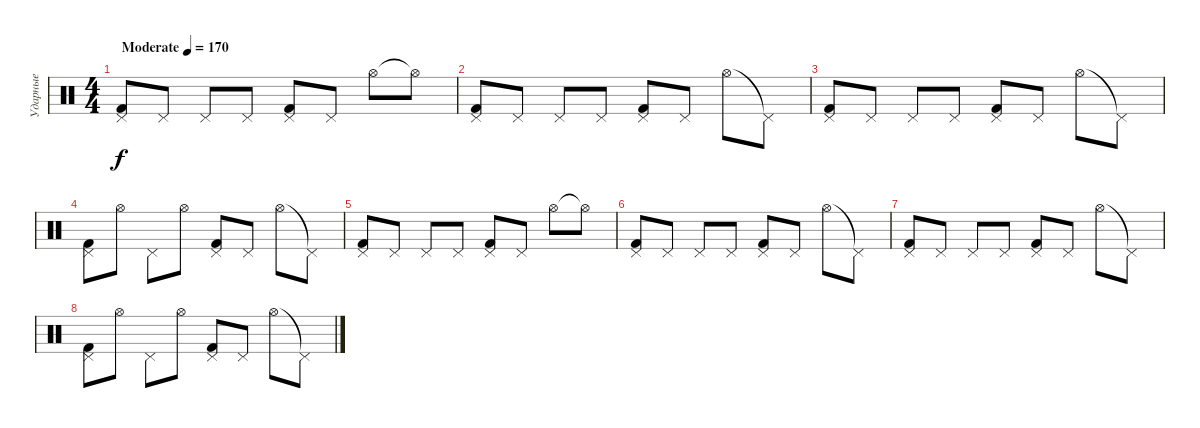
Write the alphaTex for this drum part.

\track ("Ударные" "Ударные") {instrument percussion}
\staff {score}
\articulation defaults
\ts (4 4)
\tempo (170 "Moderate")
\clef neutral
\ks c
("Pedal Hi-Hat (hit)" "Kick (hit) 2").8{dy f} "Pedal Hi-Hat (hit)".8 "Pedal Hi-Hat (hit)".8 "Pedal Hi-Hat (hit)".8 ("Pedal Hi-Hat (hit)" "Kick (hit) 2").8 "Pedal Hi-Hat (hit)".8 "Hi-Hat (open)".8 "Hi-Hat (open)"{t}.8 |
("Pedal Hi-Hat (hit)" "Kick (hit) 2").8 "Pedal Hi-Hat (hit)".8 "Pedal Hi-Hat (hit)".8 "Pedal Hi-Hat (hit)".8 ("Pedal Hi-Hat (hit)" "Kick (hit) 2").8 "Pedal Hi-Hat (hit)".8 "Hi-Hat (open)".8 "Pedal Hi-Hat (hit)"{t}.8 |
("Pedal Hi-Hat (hit)" "Kick (hit) 2").8 "Pedal Hi-Hat (hit)".8 "Pedal Hi-Hat (hit)".8 "Pedal Hi-Hat (hit)".8 ("Pedal Hi-Hat (hit)" "Kick (hit) 2").8 "Pedal Hi-Hat (hit)".8 "Hi-Hat (open)".8 "Pedal Hi-Hat (hit)"{t}.8 |
("Pedal Hi-Hat (hit)" "Kick (hit) 2").8 "Hi-Hat (open)".8 "Pedal Hi-Hat (hit)".8 "Hi-Hat (open)".8 ("Pedal Hi-Hat (hit)" "Kick (hit) 2").8 "Pedal Hi-Hat (hit)".8 "Hi-Hat (open)".8 "Pedal Hi-Hat (hit)"{t}.8 |
("Pedal Hi-Hat (hit)" "Kick (hit) 2").8 "Pedal Hi-Hat (hit)".8 "Pedal Hi-Hat (hit)".8 "Pedal Hi-Hat (hit)".8 ("Pedal Hi-Hat (hit)" "Kick (hit) 2").8 "Pedal Hi-Hat (hit)".8 "Hi-Hat (open)".8 "Hi-Hat (open)"{t}.8 |
("Pedal Hi-Hat (hit)" "Kick (hit) 2").8 "Pedal Hi-Hat (hit)".8 "Pedal Hi-Hat (hit)".8 "Pedal Hi-Hat (hit)".8 ("Pedal Hi-Hat (hit)" "Kick (hit) 2").8 "Pedal Hi-Hat (hit)".8 "Hi-Hat (open)".8 "Pedal Hi-Hat (hit)"{t}.8 |
("Pedal Hi-Hat (hit)" "Kick (hit) 2").8 "Pedal Hi-Hat (hit)".8 "Pedal Hi-Hat (hit)".8 "Pedal Hi-Hat (hit)".8 ("Pedal Hi-Hat (hit)" "Kick (hit) 2").8 "Pedal Hi-Hat (hit)".8 "Hi-Hat (open)".8 "Pedal Hi-Hat (hit)"{t}.8 |
("Pedal Hi-Hat (hit)" "Kick (hit) 2").8 "Hi-Hat (open)".8 "Pedal Hi-Hat (hit)".8 "Hi-Hat (open)".8 ("Pedal Hi-Hat (hit)" "Kick (hit) 2").8 "Pedal Hi-Hat (hit)".8 "Hi-Hat (open)".8 "Pedal Hi-Hat (hit)"{t}.8
